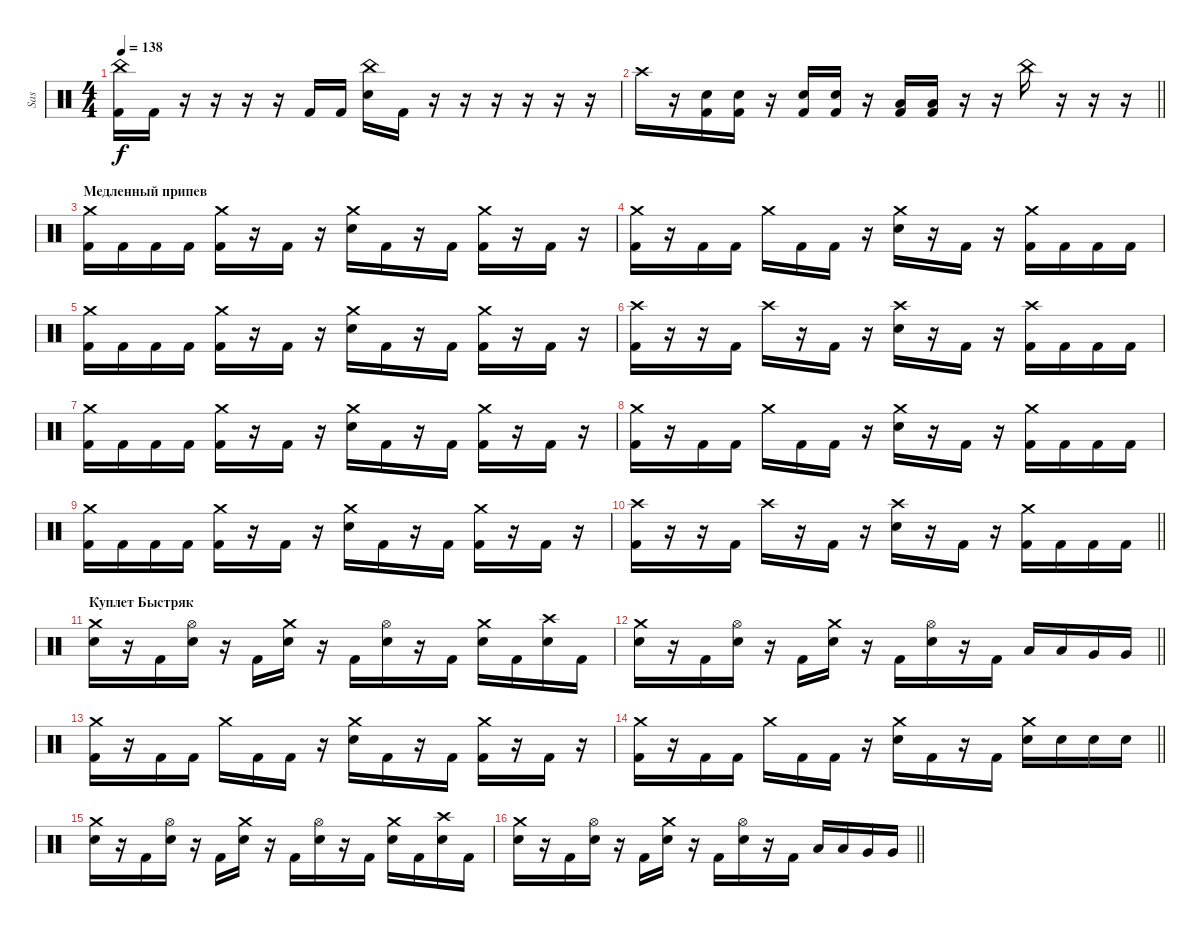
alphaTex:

\track ("Sas" "Sas") {instrument percussion}
\staff {score}
\articulation defaults
\ts (4 4)
\tempo 138
\clef neutral
\ks c
("China (hit)" "Kick (hit) 2").16{dy f} "Kick (hit) 2".16 r.16 r.16 r.16 r.16 "Kick (hit) 2".16 "Kick (hit) 2".16 ("China (hit)" "Snare (hit) 2").16 "Kick (hit) 2".16 r.16 r.16 r.16 r.16 r.16 r.16 |
\barLineRight lightlight "Crash high (hit)".16
r.16 ("Snare (hit) 2" "Kick (hit) 2").16 ("Snare (hit) 2" "Kick (hit) 2").16 r.16 ("Snare (hit) 2" "Kick (hit) 2").16 ("Snare (hit) 2" "Kick (hit) 2").16 r.16 ("Low Tom (hit)" "Kick (hit) 2").16 ("Low Tom (hit)" "Kick (hit) 2").16 r.16 r.16 "China (hit)".16 r.16 r.16 r.16 |
\section ("" "Медленный припев")
("Crash medium (hit)" "Kick (hit) 2").16 "Kick (hit) 2".16 "Kick (hit) 2".16 "Kick (hit) 2".16 ("Crash medium (hit)" "Kick (hit) 2").16 r.16 "Kick (hit) 2".16 r.16 ("Crash medium (hit)" "Snare (hit) 2").16 "Kick (hit) 2".16 r.16 "Kick (hit) 2".16 ("Crash medium (hit)" "Kick (hit) 2").16 r.16 "Kick (hit) 2".16 r.16 |
("Crash medium (hit)" "Kick (hit) 2").16 r.16 "Kick (hit) 2".16 "Kick (hit) 2".16 "Crash medium (hit)".16 "Kick (hit) 2".16 "Kick (hit) 2".16 r.16 ("Crash medium (hit)" "Snare (hit) 2").16 r.16 "Kick (hit) 2".16 r.16 ("Crash medium (hit)" "Kick (hit) 2").16 "Kick (hit) 2".16 "Kick (hit) 2".16 "Kick (hit) 2".16 |
("Crash medium (hit)" "Kick (hit) 2").16 "Kick (hit) 2".16 "Kick (hit) 2".16 "Kick (hit) 2".16 ("Crash medium (hit)" "Kick (hit) 2").16 r.16 "Kick (hit) 2".16 r.16 ("Crash medium (hit)" "Snare (hit) 2").16 "Kick (hit) 2".16 r.16 "Kick (hit) 2".16 ("Crash medium (hit)" "Kick (hit) 2").16 r.16 "Kick (hit) 2".16 r.16 |
("Crash high (hit)" "Kick (hit) 2").16 r.16 r.16 "Kick (hit) 2".16 "Crash high (hit)".16 r.16 "Kick (hit) 2".16 r.16 ("Crash high (hit)" "Snare (hit) 2").16 r.16 "Kick (hit) 2".16 r.16 ("Crash high (hit)" "Kick (hit) 2").16 "Kick (hit) 2".16 "Kick (hit) 2".16 "Kick (hit) 2".16 |
("Crash medium (hit)" "Kick (hit) 2").16 "Kick (hit) 2".16 "Kick (hit) 2".16 "Kick (hit) 2".16 ("Crash medium (hit)" "Kick (hit) 2").16 r.16 "Kick (hit) 2".16 r.16 ("Crash medium (hit)" "Snare (hit) 2").16 "Kick (hit) 2".16 r.16 "Kick (hit) 2".16 ("Crash medium (hit)" "Kick (hit) 2").16 r.16 "Kick (hit) 2".16 r.16 |
("Crash medium (hit)" "Kick (hit) 2").16 r.16 "Kick (hit) 2".16 "Kick (hit) 2".16 "Crash medium (hit)".16 "Kick (hit) 2".16 "Kick (hit) 2".16 r.16 ("Crash medium (hit)" "Snare (hit) 2").16 r.16 "Kick (hit) 2".16 r.16 ("Crash medium (hit)" "Kick (hit) 2").16 "Kick (hit) 2".16 "Kick (hit) 2".16 "Kick (hit) 2".16 |
("Crash medium (hit)" "Kick (hit) 2").16 "Kick (hit) 2".16 "Kick (hit) 2".16 "Kick (hit) 2".16 ("Crash medium (hit)" "Kick (hit) 2").16 r.16 "Kick (hit) 2".16 r.16 ("Crash medium (hit)" "Snare (hit) 2").16 "Kick (hit) 2".16 r.16 "Kick (hit) 2".16 ("Crash medium (hit)" "Kick (hit) 2").16 r.16 "Kick (hit) 2".16 r.16 |
\barLineRight lightlight
("Crash high (hit)" "Kick (hit) 2").16 r.16 r.16 "Kick (hit) 2".16 "Crash high (hit)".16 r.16 "Kick (hit) 2".16 r.16 ("Crash high (hit)" "Snare (hit) 2").16 r.16 "Kick (hit) 2".16 r.16 ("Crash medium (hit)" "Kick (hit) 2").16 "Kick (hit) 2".16 "Kick (hit) 2".16 "Kick (hit) 2".16 |
\section ("" "Куплет Быстряк")
("Crash medium (hit)" "Snare (hit) 2").16 r.16 "Kick (hit) 2".16 ("Hi-Hat (open)" "Snare (hit) 2").16 r.16 "Kick (hit) 2".16 ("Crash medium (hit)" "Snare (hit) 2").16 r.16 "Kick (hit) 2".16 ("Hi-Hat (open)" "Snare (hit) 2").16 r.16 "Kick (hit) 2".16 ("Crash medium (hit)" "Snare (hit) 2").16 "Kick (hit) 2".16 ("Crash high (hit)" "Snare (hit) 2").16 "Kick (hit) 2".16 |
\barLineRight lightlight
("Crash medium (hit)" "Snare (hit) 2").16 r.16 "Kick (hit) 2".16 ("Hi-Hat (open)" "Snare (hit) 2").16 r.16 "Kick (hit) 2".16 ("Crash medium (hit)" "Snare (hit) 2").16 r.16 "Kick (hit) 2".16 ("Hi-Hat (open)" "Snare (hit) 2").16 r.16 "Kick (hit) 2".16 "Low Tom (hit)".16 "Low Tom (hit)".16 "Very Low Tom (hit)".16 "Very Low Tom (hit)".16 |
("Crash medium (hit)" "Kick (hit) 2").16 r.16 "Kick (hit) 2".16 "Kick (hit) 2".16 "Crash medium (hit)".16 "Kick (hit) 2".16 "Kick (hit) 2".16 r.16 ("Crash medium (hit)" "Snare (hit) 2").16 "Kick (hit) 2".16 r.16 "Kick (hit) 2".16 ("Crash medium (hit)" "Kick (hit) 2").16 r.16 "Kick (hit) 2".16 r.16 |
\barLineRight lightlight
("Crash medium (hit)" "Kick (hit) 2").16 r.16 "Kick (hit) 2".16 "Kick (hit) 2".16 "Crash medium (hit)".16 "Kick (hit) 2".16 "Kick (hit) 2".16 r.16 ("Crash medium (hit)" "Snare (hit) 2").16 "Kick (hit) 2".16 r.16 "Kick (hit) 2".16 ("Crash medium (hit)" "Snare (hit) 2").16 "Snare (hit) 2".16 "Snare (hit) 2".16 "Snare (hit) 2".16 |
("Crash medium (hit)" "Snare (hit) 2").16 r.16 "Kick (hit) 2".16 ("Hi-Hat (open)" "Snare (hit) 2").16 r.16 "Kick (hit) 2".16 ("Crash medium (hit)" "Snare (hit) 2").16 r.16 "Kick (hit) 2".16 ("Hi-Hat (open)" "Snare (hit) 2").16 r.16 "Kick (hit) 2".16 ("Crash medium (hit)" "Snare (hit) 2").16 "Kick (hit) 2".16 ("Crash high (hit)" "Snare (hit) 2").16 "Kick (hit) 2".16 |
\barLineRight lightlight
("Crash medium (hit)" "Snare (hit) 2").16 r.16 "Kick (hit) 2".16 ("Hi-Hat (open)" "Snare (hit) 2").16 r.16 "Kick (hit) 2".16 ("Crash medium (hit)" "Snare (hit) 2").16 r.16 "Kick (hit) 2".16 ("Hi-Hat (open)" "Snare (hit) 2").16 r.16 "Kick (hit) 2".16 "Low Tom (hit)".16 "Low Tom (hit)".16 "Very Low Tom (hit)".16 "Very Low Tom (hit)".16
